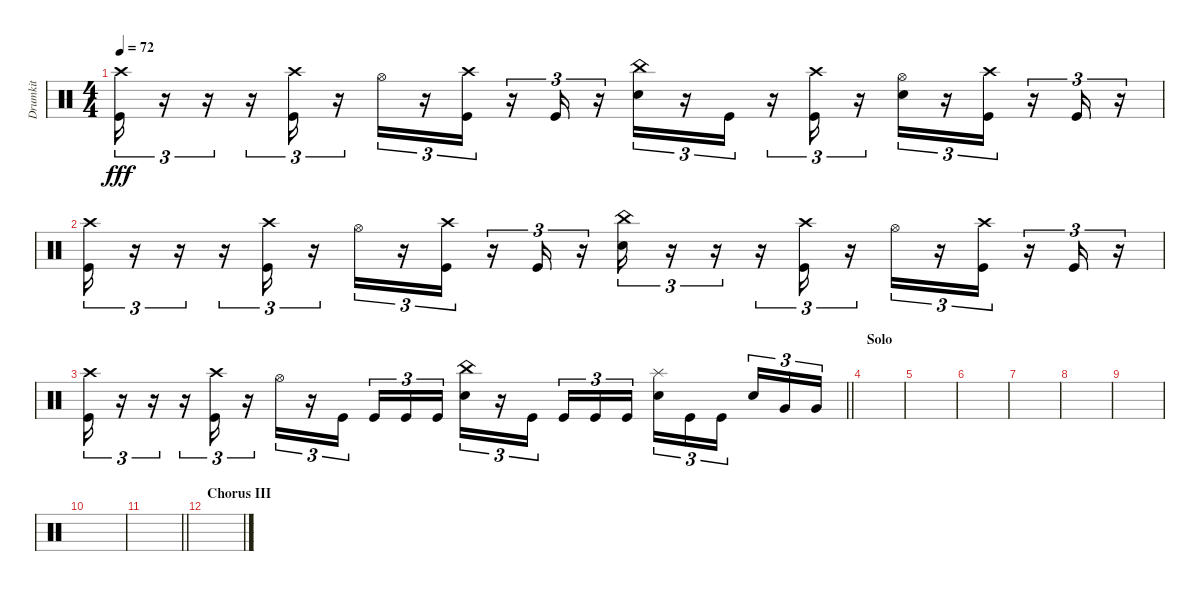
\track ("Drumkit" "Drumkit") {instrument percussion}
\staff {score}
\articulation defaults
\ts (4 4)
\tempo 72
\clef neutral
\ks c
("Kick (hit)" "Crash high (hit)").16{tu (3 2) dy fff} r.16{tu (3 2)} r.16{tu (3 2)} r.16{tu (3 2)} ("Kick (hit)" "Crash high (hit)").16{tu (3 2)} r.16{tu (3 2)} "Hi-Hat (open)".16{tu (3 2)} r.16{tu (3 2)} ("Kick (hit)" "Crash high (hit)").16{tu (3 2)} r.16{tu (3 2)} "Kick (hit)".16{tu (3 2)} r.16{tu (3 2)} ("Snare (hit) 2" "China (hit)").16{tu (3 2)} r.16{tu (3 2)} "Kick (hit)".16{tu (3 2)} r.16{tu (3 2)} ("Kick (hit)" "Crash high (hit)").16{tu (3 2)} r.16{tu (3 2)} ("Hi-Hat (open)" "Snare (hit) 2").16{tu (3 2)} r.16{tu (3 2)} ("Kick (hit)" "Crash high (hit)").16{tu (3 2)} r.16{tu (3 2)} "Kick (hit)".16{tu (3 2)} r.16{tu (3 2)} |
("Kick (hit)" "Crash high (hit)").16{tu (3 2)} r.16{tu (3 2)} r.16{tu (3 2)} r.16{tu (3 2)} ("Kick (hit)" "Crash high (hit)").16{tu (3 2)} r.16{tu (3 2)} "Hi-Hat (open)".16{tu (3 2)} r.16{tu (3 2)} ("Kick (hit)" "Crash high (hit)").16{tu (3 2)} r.16{tu (3 2)} "Kick (hit)".16{tu (3 2)} r.16{tu (3 2)} ("Snare (hit) 2" "China (hit)").16{tu (3 2)} r.16{tu (3 2)} r.16{tu (3 2)} r.16{tu (3 2)} ("Kick (hit)" "Crash high (hit)").16{tu (3 2)} r.16{tu (3 2)} "Hi-Hat (open)".16{tu (3 2)} r.16{tu (3 2)} ("Kick (hit)" "Crash high (hit)").16{tu (3 2)} r.16{tu (3 2)} "Kick (hit)".16{tu (3 2)} r.16{tu (3 2)} |
\barLineRight lightlight
("Kick (hit)" "Crash high (hit)").16{tu (3 2)} r.16{tu (3 2)} r.16{tu (3 2)} r.16{tu (3 2)} ("Kick (hit)" "Crash high (hit)").16{tu (3 2)} r.16{tu (3 2)} "Hi-Hat (open)".16{tu (3 2)} r.16{tu (3 2)} "Kick (hit)".16{tu (3 2) beam splitsecondary} "Kick (hit)".16{tu (3 2)} "Kick (hit)".16{tu (3 2)} "Kick (hit)".16{tu (3 2)} ("Snare (hit) 2" "China (hit)").16{tu (3 2)} r.16{tu (3 2)} "Kick (hit)".16{tu (3 2) beam splitsecondary} "Kick (hit)".16{tu (3 2)} "Kick (hit)".16{tu (3 2)} "Kick (hit)".16{tu (3 2)} ("Snare (hit) 2" "Splash (hit)").16{tu (3 2)} "Kick (hit)".16{tu (3 2)} "Kick (hit)".16{tu (3 2) beam splitsecondary} "Snare (hit) 2".16{tu (3 2)} "Very Low Tom (hit)".16{tu (3 2)} "Very Low Tom (hit)".16{tu (3 2)} |
\section ("" "Solo")
|
|
|
|
|
|
|
\barLineRight lightlight
|
\section ("" "Chorus III")
